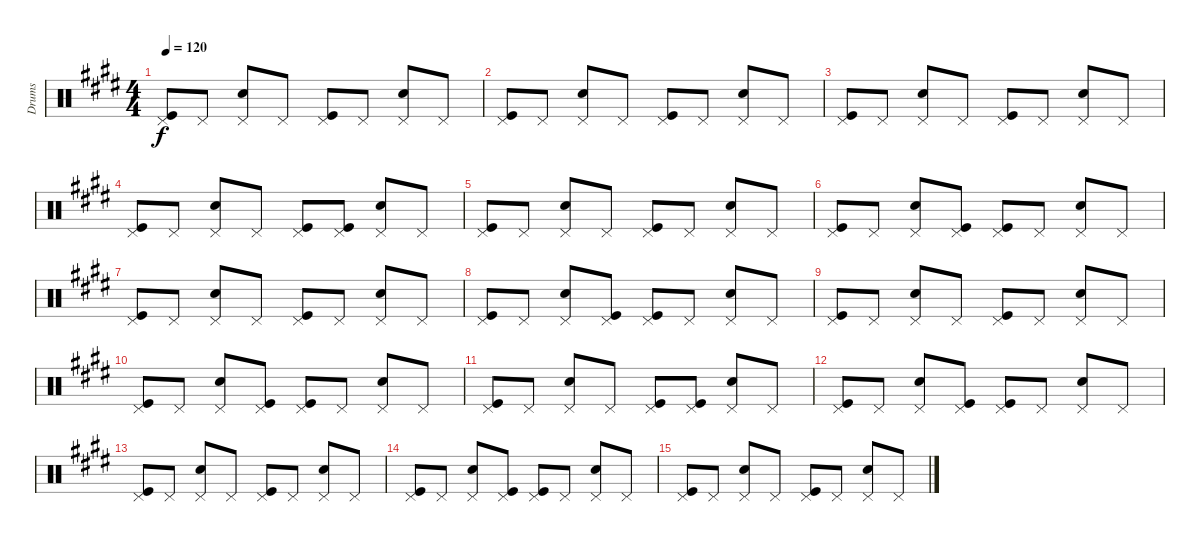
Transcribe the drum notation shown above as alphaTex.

\track ("Drums" "Drums") {instrument percussion}
\staff {score}
\articulation defaults
\ts (4 4)
\tempo 120
\clef neutral
\ks e
("Pedal Hi-Hat (hit)" "Kick (hit)").8{dy f} "Pedal Hi-Hat (hit)".8 ("Pedal Hi-Hat (hit)" "Snare (hit) 2").8 "Pedal Hi-Hat (hit)".8 ("Pedal Hi-Hat (hit)" "Kick (hit)").8 "Pedal Hi-Hat (hit)".8 ("Pedal Hi-Hat (hit)" "Snare (hit) 2").8 "Pedal Hi-Hat (hit)".8 |
("Pedal Hi-Hat (hit)" "Kick (hit)").8 "Pedal Hi-Hat (hit)".8 ("Pedal Hi-Hat (hit)" "Snare (hit) 2").8 "Pedal Hi-Hat (hit)".8 ("Pedal Hi-Hat (hit)" "Kick (hit)").8 "Pedal Hi-Hat (hit)".8 ("Pedal Hi-Hat (hit)" "Snare (hit) 2").8 "Pedal Hi-Hat (hit)".8 |
("Pedal Hi-Hat (hit)" "Kick (hit)").8 "Pedal Hi-Hat (hit)".8 ("Pedal Hi-Hat (hit)" "Snare (hit) 2").8 "Pedal Hi-Hat (hit)".8 ("Pedal Hi-Hat (hit)" "Kick (hit)").8 "Pedal Hi-Hat (hit)".8 ("Pedal Hi-Hat (hit)" "Snare (hit) 2").8 "Pedal Hi-Hat (hit)".8 |
("Pedal Hi-Hat (hit)" "Kick (hit)").8 "Pedal Hi-Hat (hit)".8 ("Pedal Hi-Hat (hit)" "Snare (hit) 2").8 "Pedal Hi-Hat (hit)".8 ("Pedal Hi-Hat (hit)" "Kick (hit)").8 ("Pedal Hi-Hat (hit)" "Kick (hit)").8 ("Pedal Hi-Hat (hit)" "Snare (hit) 2").8 "Pedal Hi-Hat (hit)".8 |
("Pedal Hi-Hat (hit)" "Kick (hit)").8 "Pedal Hi-Hat (hit)".8 ("Pedal Hi-Hat (hit)" "Snare (hit) 2").8 "Pedal Hi-Hat (hit)".8 ("Pedal Hi-Hat (hit)" "Kick (hit)").8 "Pedal Hi-Hat (hit)".8 ("Pedal Hi-Hat (hit)" "Snare (hit) 2").8 "Pedal Hi-Hat (hit)".8 |
("Pedal Hi-Hat (hit)" "Kick (hit)").8 "Pedal Hi-Hat (hit)".8 ("Pedal Hi-Hat (hit)" "Snare (hit) 2").8 ("Pedal Hi-Hat (hit)" "Kick (hit)").8 ("Pedal Hi-Hat (hit)" "Kick (hit)").8 "Pedal Hi-Hat (hit)".8 ("Pedal Hi-Hat (hit)" "Snare (hit) 2").8 "Pedal Hi-Hat (hit)".8 |
("Pedal Hi-Hat (hit)" "Kick (hit)").8 "Pedal Hi-Hat (hit)".8 ("Pedal Hi-Hat (hit)" "Snare (hit) 2").8 "Pedal Hi-Hat (hit)".8 ("Pedal Hi-Hat (hit)" "Kick (hit)").8 "Pedal Hi-Hat (hit)".8 ("Pedal Hi-Hat (hit)" "Snare (hit) 2").8 "Pedal Hi-Hat (hit)".8 |
("Pedal Hi-Hat (hit)" "Kick (hit)").8 "Pedal Hi-Hat (hit)".8 ("Pedal Hi-Hat (hit)" "Snare (hit) 2").8 ("Pedal Hi-Hat (hit)" "Kick (hit)").8 ("Pedal Hi-Hat (hit)" "Kick (hit)").8 "Pedal Hi-Hat (hit)".8 ("Pedal Hi-Hat (hit)" "Snare (hit) 2").8 "Pedal Hi-Hat (hit)".8 |
("Pedal Hi-Hat (hit)" "Kick (hit)").8 "Pedal Hi-Hat (hit)".8 ("Pedal Hi-Hat (hit)" "Snare (hit) 2").8 "Pedal Hi-Hat (hit)".8 ("Pedal Hi-Hat (hit)" "Kick (hit)").8 "Pedal Hi-Hat (hit)".8 ("Pedal Hi-Hat (hit)" "Snare (hit) 2").8 "Pedal Hi-Hat (hit)".8 |
("Pedal Hi-Hat (hit)" "Kick (hit)").8 "Pedal Hi-Hat (hit)".8 ("Pedal Hi-Hat (hit)" "Snare (hit) 2").8 ("Pedal Hi-Hat (hit)" "Kick (hit)").8 ("Pedal Hi-Hat (hit)" "Kick (hit)").8 "Pedal Hi-Hat (hit)".8 ("Pedal Hi-Hat (hit)" "Snare (hit) 2").8 "Pedal Hi-Hat (hit)".8 |
("Pedal Hi-Hat (hit)" "Kick (hit)").8 "Pedal Hi-Hat (hit)".8 ("Pedal Hi-Hat (hit)" "Snare (hit) 2").8 "Pedal Hi-Hat (hit)".8 ("Pedal Hi-Hat (hit)" "Kick (hit)").8 ("Pedal Hi-Hat (hit)" "Kick (hit)").8 ("Pedal Hi-Hat (hit)" "Snare (hit) 2").8 "Pedal Hi-Hat (hit)".8 |
("Pedal Hi-Hat (hit)" "Kick (hit)").8{volume 0} "Pedal Hi-Hat (hit)".8 ("Pedal Hi-Hat (hit)" "Snare (hit) 2").8 ("Pedal Hi-Hat (hit)" "Kick (hit)").8 ("Pedal Hi-Hat (hit)" "Kick (hit)").8 "Pedal Hi-Hat (hit)".8 ("Pedal Hi-Hat (hit)" "Snare (hit) 2").8 "Pedal Hi-Hat (hit)".8 |
("Pedal Hi-Hat (hit)" "Kick (hit)").8 "Pedal Hi-Hat (hit)".8 ("Pedal Hi-Hat (hit)" "Snare (hit) 2").8 "Pedal Hi-Hat (hit)".8 ("Pedal Hi-Hat (hit)" "Kick (hit)").8 "Pedal Hi-Hat (hit)".8 ("Pedal Hi-Hat (hit)" "Snare (hit) 2").8 "Pedal Hi-Hat (hit)".8 |
("Pedal Hi-Hat (hit)" "Kick (hit)").8 "Pedal Hi-Hat (hit)".8 ("Pedal Hi-Hat (hit)" "Snare (hit) 2").8 ("Pedal Hi-Hat (hit)" "Kick (hit)").8 ("Pedal Hi-Hat (hit)" "Kick (hit)").8 "Pedal Hi-Hat (hit)".8 ("Pedal Hi-Hat (hit)" "Snare (hit) 2").8 "Pedal Hi-Hat (hit)".8 |
("Pedal Hi-Hat (hit)" "Kick (hit)").8 "Pedal Hi-Hat (hit)".8 ("Pedal Hi-Hat (hit)" "Snare (hit) 2").8 "Pedal Hi-Hat (hit)".8 ("Pedal Hi-Hat (hit)" "Kick (hit)").8 "Pedal Hi-Hat (hit)".8 ("Pedal Hi-Hat (hit)" "Snare (hit) 2").8 "Pedal Hi-Hat (hit)".8
